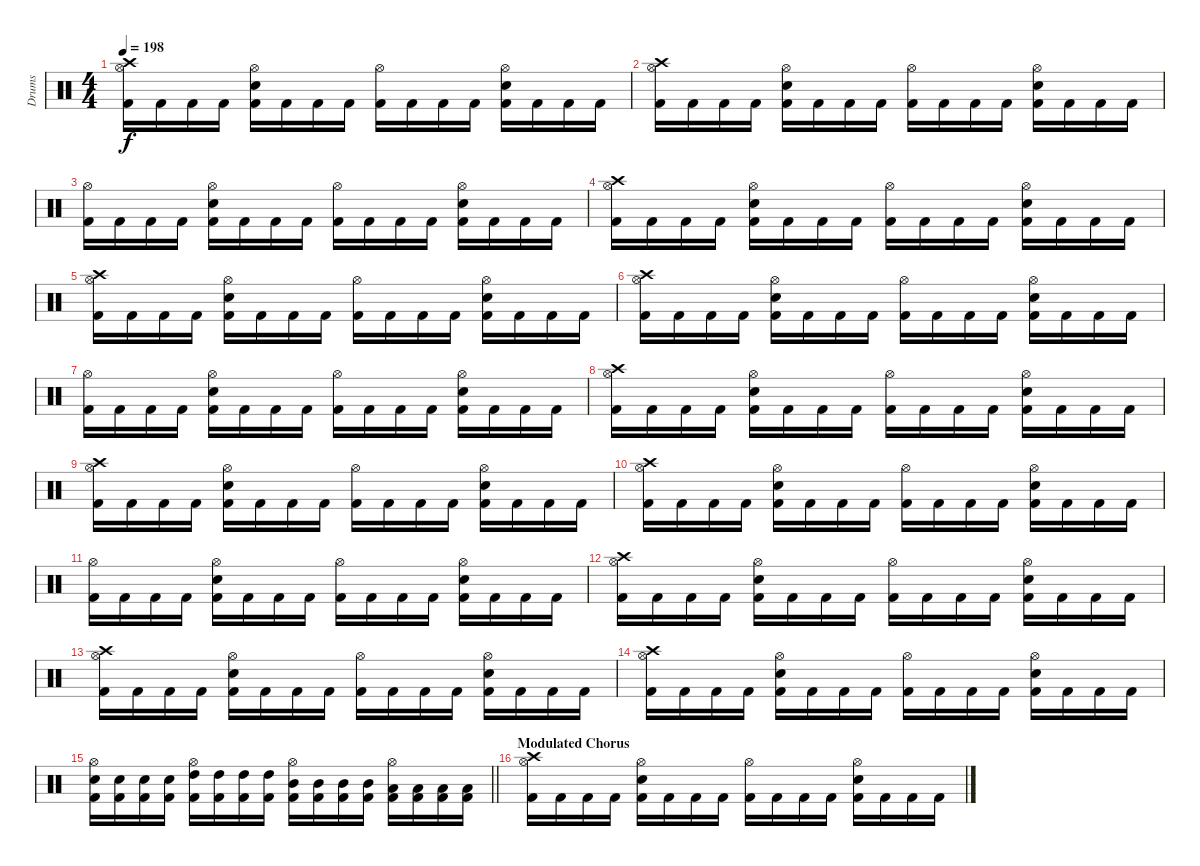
\track ("Drums" "Drums") {instrument percussion}
\staff {score}
\articulation defaults
\ts (4 4)
\tempo 198
\clef neutral
\ks c
("Crash high (hit)" "Hi-Hat (open)" "Kick (hit) 2").16{dy f} "Kick (hit) 2".16 "Kick (hit) 2".16 "Kick (hit) 2".16 ("Hi-Hat (open)" "Snare (hit) 2" "Kick (hit) 2").16 "Kick (hit) 2".16 "Kick (hit) 2".16 "Kick (hit) 2".16 ("Hi-Hat (open)" "Kick (hit) 2").16 "Kick (hit) 2".16 "Kick (hit) 2".16 "Kick (hit) 2".16 ("Hi-Hat (open)" "Snare (hit) 2" "Kick (hit) 2").16 "Kick (hit) 2".16 "Kick (hit) 2".16 "Kick (hit) 2".16 |
("Crash high (hit)" "Hi-Hat (open)" "Kick (hit) 2").16 "Kick (hit) 2".16 "Kick (hit) 2".16 "Kick (hit) 2".16 ("Hi-Hat (open)" "Snare (hit) 2" "Kick (hit) 2").16 "Kick (hit) 2".16 "Kick (hit) 2".16 "Kick (hit) 2".16 ("Hi-Hat (open)" "Kick (hit) 2").16 "Kick (hit) 2".16 "Kick (hit) 2".16 "Kick (hit) 2".16 ("Hi-Hat (open)" "Snare (hit) 2" "Kick (hit) 2").16 "Kick (hit) 2".16 "Kick (hit) 2".16 "Kick (hit) 2".16 |
("Hi-Hat (open)" "Kick (hit) 2").16 "Kick (hit) 2".16 "Kick (hit) 2".16 "Kick (hit) 2".16 ("Hi-Hat (open)" "Snare (hit) 2" "Kick (hit) 2").16 "Kick (hit) 2".16 "Kick (hit) 2".16 "Kick (hit) 2".16 ("Hi-Hat (open)" "Kick (hit) 2").16 "Kick (hit) 2".16 "Kick (hit) 2".16 "Kick (hit) 2".16 ("Hi-Hat (open)" "Snare (hit) 2" "Kick (hit) 2").16 "Kick (hit) 2".16 "Kick (hit) 2".16 "Kick (hit) 2".16 |
("Crash high (hit)" "Hi-Hat (open)" "Kick (hit) 2").16 "Kick (hit) 2".16 "Kick (hit) 2".16 "Kick (hit) 2".16 ("Hi-Hat (open)" "Snare (hit) 2" "Kick (hit) 2").16 "Kick (hit) 2".16 "Kick (hit) 2".16 "Kick (hit) 2".16 ("Hi-Hat (open)" "Kick (hit) 2").16 "Kick (hit) 2".16 "Kick (hit) 2".16 "Kick (hit) 2".16 ("Hi-Hat (open)" "Snare (hit) 2" "Kick (hit) 2").16 "Kick (hit) 2".16 "Kick (hit) 2".16 "Kick (hit) 2".16 |
("Crash high (hit)" "Hi-Hat (open)" "Kick (hit) 2").16 "Kick (hit) 2".16 "Kick (hit) 2".16 "Kick (hit) 2".16 ("Hi-Hat (open)" "Snare (hit) 2" "Kick (hit) 2").16 "Kick (hit) 2".16 "Kick (hit) 2".16 "Kick (hit) 2".16 ("Hi-Hat (open)" "Kick (hit) 2").16 "Kick (hit) 2".16 "Kick (hit) 2".16 "Kick (hit) 2".16 ("Hi-Hat (open)" "Snare (hit) 2" "Kick (hit) 2").16 "Kick (hit) 2".16 "Kick (hit) 2".16 "Kick (hit) 2".16 |
("Crash high (hit)" "Hi-Hat (open)" "Kick (hit) 2").16 "Kick (hit) 2".16 "Kick (hit) 2".16 "Kick (hit) 2".16 ("Hi-Hat (open)" "Snare (hit) 2" "Kick (hit) 2").16 "Kick (hit) 2".16 "Kick (hit) 2".16 "Kick (hit) 2".16 ("Hi-Hat (open)" "Kick (hit) 2").16 "Kick (hit) 2".16 "Kick (hit) 2".16 "Kick (hit) 2".16 ("Hi-Hat (open)" "Snare (hit) 2" "Kick (hit) 2").16 "Kick (hit) 2".16 "Kick (hit) 2".16 "Kick (hit) 2".16 |
("Hi-Hat (open)" "Kick (hit) 2").16 "Kick (hit) 2".16 "Kick (hit) 2".16 "Kick (hit) 2".16 ("Hi-Hat (open)" "Snare (hit) 2" "Kick (hit) 2").16 "Kick (hit) 2".16 "Kick (hit) 2".16 "Kick (hit) 2".16 ("Hi-Hat (open)" "Kick (hit) 2").16 "Kick (hit) 2".16 "Kick (hit) 2".16 "Kick (hit) 2".16 ("Hi-Hat (open)" "Snare (hit) 2" "Kick (hit) 2").16 "Kick (hit) 2".16 "Kick (hit) 2".16 "Kick (hit) 2".16 |
("Crash high (hit)" "Hi-Hat (open)" "Kick (hit) 2").16 "Kick (hit) 2".16 "Kick (hit) 2".16 "Kick (hit) 2".16 ("Hi-Hat (open)" "Snare (hit) 2" "Kick (hit) 2").16 "Kick (hit) 2".16 "Kick (hit) 2".16 "Kick (hit) 2".16 ("Hi-Hat (open)" "Kick (hit) 2").16 "Kick (hit) 2".16 "Kick (hit) 2".16 "Kick (hit) 2".16 ("Hi-Hat (open)" "Snare (hit) 2" "Kick (hit) 2").16 "Kick (hit) 2".16 "Kick (hit) 2".16 "Kick (hit) 2".16 |
("Crash high (hit)" "Hi-Hat (open)" "Kick (hit) 2").16 "Kick (hit) 2".16 "Kick (hit) 2".16 "Kick (hit) 2".16 ("Hi-Hat (open)" "Snare (hit) 2" "Kick (hit) 2").16 "Kick (hit) 2".16 "Kick (hit) 2".16 "Kick (hit) 2".16 ("Hi-Hat (open)" "Kick (hit) 2").16 "Kick (hit) 2".16 "Kick (hit) 2".16 "Kick (hit) 2".16 ("Hi-Hat (open)" "Snare (hit) 2" "Kick (hit) 2").16 "Kick (hit) 2".16 "Kick (hit) 2".16 "Kick (hit) 2".16 |
("Crash high (hit)" "Hi-Hat (open)" "Kick (hit) 2").16 "Kick (hit) 2".16 "Kick (hit) 2".16 "Kick (hit) 2".16 ("Hi-Hat (open)" "Snare (hit) 2" "Kick (hit) 2").16 "Kick (hit) 2".16 "Kick (hit) 2".16 "Kick (hit) 2".16 ("Hi-Hat (open)" "Kick (hit) 2").16 "Kick (hit) 2".16 "Kick (hit) 2".16 "Kick (hit) 2".16 ("Hi-Hat (open)" "Snare (hit) 2" "Kick (hit) 2").16 "Kick (hit) 2".16 "Kick (hit) 2".16 "Kick (hit) 2".16 |
("Hi-Hat (open)" "Kick (hit) 2").16 "Kick (hit) 2".16 "Kick (hit) 2".16 "Kick (hit) 2".16 ("Hi-Hat (open)" "Snare (hit) 2" "Kick (hit) 2").16 "Kick (hit) 2".16 "Kick (hit) 2".16 "Kick (hit) 2".16 ("Hi-Hat (open)" "Kick (hit) 2").16 "Kick (hit) 2".16 "Kick (hit) 2".16 "Kick (hit) 2".16 ("Hi-Hat (open)" "Snare (hit) 2" "Kick (hit) 2").16 "Kick (hit) 2".16 "Kick (hit) 2".16 "Kick (hit) 2".16 |
("Crash high (hit)" "Hi-Hat (open)" "Kick (hit) 2").16 "Kick (hit) 2".16 "Kick (hit) 2".16 "Kick (hit) 2".16 ("Hi-Hat (open)" "Snare (hit) 2" "Kick (hit) 2").16 "Kick (hit) 2".16 "Kick (hit) 2".16 "Kick (hit) 2".16 ("Hi-Hat (open)" "Kick (hit) 2").16 "Kick (hit) 2".16 "Kick (hit) 2".16 "Kick (hit) 2".16 ("Hi-Hat (open)" "Snare (hit) 2" "Kick (hit) 2").16 "Kick (hit) 2".16 "Kick (hit) 2".16 "Kick (hit) 2".16 |
("Crash high (hit)" "Hi-Hat (open)" "Kick (hit) 2").16 "Kick (hit) 2".16 "Kick (hit) 2".16 "Kick (hit) 2".16 ("Hi-Hat (open)" "Snare (hit) 2" "Kick (hit) 2").16 "Kick (hit) 2".16 "Kick (hit) 2".16 "Kick (hit) 2".16 ("Hi-Hat (open)" "Kick (hit) 2").16 "Kick (hit) 2".16 "Kick (hit) 2".16 "Kick (hit) 2".16 ("Hi-Hat (open)" "Snare (hit) 2" "Kick (hit) 2").16 "Kick (hit) 2".16 "Kick (hit) 2".16 "Kick (hit) 2".16 |
("Crash high (hit)" "Hi-Hat (open)" "Kick (hit) 2").16 "Kick (hit) 2".16 "Kick (hit) 2".16 "Kick (hit) 2".16 ("Hi-Hat (open)" "Snare (hit) 2" "Kick (hit) 2").16 "Kick (hit) 2".16 "Kick (hit) 2".16 "Kick (hit) 2".16 ("Hi-Hat (open)" "Kick (hit) 2").16 "Kick (hit) 2".16 "Kick (hit) 2".16 "Kick (hit) 2".16 ("Hi-Hat (open)" "Snare (hit) 2" "Kick (hit) 2").16 "Kick (hit) 2".16 "Kick (hit) 2".16 "Kick (hit) 2".16 |
\barLineRight lightlight
("Hi-Hat (open)" "Snare (hit) 2" "Kick (hit) 2").16 ("Snare (hit) 2" "Kick (hit) 2").16 ("Snare (hit) 2" "Kick (hit) 2").16 ("Snare (hit) 2" "Kick (hit) 2").16 ("Hi-Hat (open)" "High Tom (hit)" "Kick (hit) 2").16 ("High Tom (hit)" "Kick (hit) 2").16 ("High Tom (hit)" "Kick (hit) 2").16 ("High Tom (hit)" "Kick (hit) 2").16 ("Hi-Hat (open)" "Mid Tom (hit)" "Kick (hit) 2").16 ("Mid Tom (hit)" "Kick (hit) 2").16 ("Mid Tom (hit)" "Kick (hit) 2").16 ("Mid Tom (hit)" "Kick (hit) 2").16 ("Hi-Hat (open)" "Low Tom (hit)" "Kick (hit) 2").16 ("Low Tom (hit)" "Kick (hit) 2").16 ("Low Tom (hit)" "Kick (hit) 2").16 ("Low Tom (hit)" "Kick (hit) 2").16 |
\section ("" "Modulated Chorus")
("Crash high (hit)" "Hi-Hat (open)" "Kick (hit) 2").16 "Kick (hit) 2".16 "Kick (hit) 2".16 "Kick (hit) 2".16 ("Hi-Hat (open)" "Snare (hit) 2" "Kick (hit) 2").16 "Kick (hit) 2".16 "Kick (hit) 2".16 "Kick (hit) 2".16 ("Hi-Hat (open)" "Kick (hit) 2").16 "Kick (hit) 2".16 "Kick (hit) 2".16 "Kick (hit) 2".16 ("Hi-Hat (open)" "Snare (hit) 2" "Kick (hit) 2").16 "Kick (hit) 2".16 "Kick (hit) 2".16 "Kick (hit) 2".16
